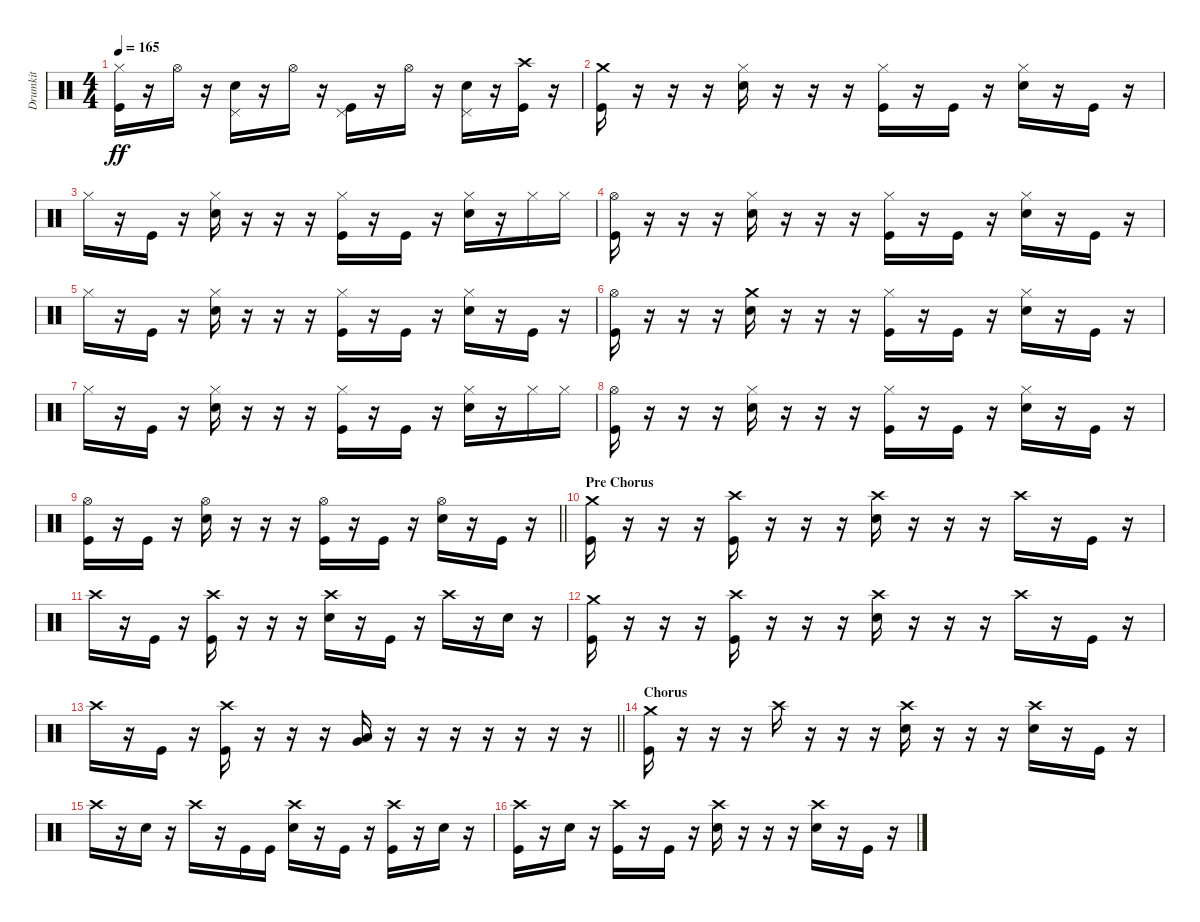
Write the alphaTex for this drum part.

\track ("Drumkit" "Drumkit") {instrument percussion}
\staff {score}
\articulation defaults
\ts (4 4)
\tempo 165
\clef neutral
\ks c
("Hi-Hat (closed)" "Kick (hit)").16{dy ff} r.16 "Hi-Hat (open)".16 r.16 ("Pedal Hi-Hat (hit)" "Snare (hit) 2").16 r.16 "Hi-Hat (open)".16 r.16 ("Pedal Hi-Hat (hit)" "Kick (hit)").16 r.16 "Hi-Hat (open)".16 r.16 ("Pedal Hi-Hat (hit)" "Snare (hit) 2").16 r.16 ("Crash high (hit)" "Kick (hit)").16 r.16 |
("Crash medium (hit)" "Kick (hit)").16 r.16 r.16 r.16 ("Hi-Hat (closed)" "Snare (hit) 2").16 r.16 r.16 r.16 ("Hi-Hat (closed)" "Kick (hit)").16 r.16 "Kick (hit)".16 r.16 ("Hi-Hat (closed)" "Snare (hit) 2").16 r.16 "Kick (hit)".16 r.16 |
"Hi-Hat (closed)".16 r.16 "Kick (hit)".16 r.16 ("Hi-Hat (closed)" "Snare (hit) 2").16 r.16 r.16 r.16 ("Hi-Hat (closed)" "Kick (hit)").16 r.16 "Kick (hit)".16 r.16 ("Hi-Hat (closed)" "Snare (hit) 2").16 r.16 "Hi-Hat (closed)".16 "Hi-Hat (closed)".16 |
("Hi-Hat (open)" "Kick (hit)").16 r.16 r.16 r.16 ("Hi-Hat (closed)" "Snare (hit) 2").16 r.16 r.16 r.16 ("Hi-Hat (closed)" "Kick (hit)").16 r.16 "Kick (hit)".16 r.16 ("Hi-Hat (closed)" "Snare (hit) 2").16 r.16 "Kick (hit)".16 r.16 |
"Hi-Hat (closed)".16 r.16 "Kick (hit)".16 r.16 ("Hi-Hat (closed)" "Snare (hit) 2").16 r.16 r.16 r.16 ("Hi-Hat (closed)" "Kick (hit)").16 r.16 "Kick (hit)".16 r.16 ("Hi-Hat (closed)" "Snare (hit) 2").16 r.16 "Kick (hit)".16 r.16 |
("Hi-Hat (open)" "Kick (hit)").16 r.16 r.16 r.16 ("Crash medium (hit)" "Snare (hit) 2").16 r.16 r.16 r.16 ("Hi-Hat (closed)" "Kick (hit)").16 r.16 "Kick (hit)".16 r.16 ("Hi-Hat (closed)" "Snare (hit) 2").16 r.16 "Kick (hit)".16 r.16 |
"Hi-Hat (closed)".16 r.16 "Kick (hit)".16 r.16 ("Hi-Hat (closed)" "Snare (hit) 2").16 r.16 r.16 r.16 ("Hi-Hat (closed)" "Kick (hit)").16 r.16 "Kick (hit)".16 r.16 ("Hi-Hat (closed)" "Snare (hit) 2").16 r.16 "Hi-Hat (closed)".16 "Hi-Hat (closed)".16 |
("Hi-Hat (open)" "Kick (hit)").16 r.16 r.16 r.16 ("Hi-Hat (closed)" "Snare (hit) 2").16 r.16 r.16 r.16 ("Hi-Hat (closed)" "Kick (hit)").16 r.16 "Kick (hit)".16 r.16 ("Hi-Hat (closed)" "Snare (hit) 2").16 r.16 "Kick (hit)".16 r.16 |
\barLineRight lightlight
("Hi-Hat (open)" "Kick (hit)").16 r.16 "Kick (hit)".16 r.16 ("Hi-Hat (open)" "Snare (hit) 2").16 r.16 r.16 r.16 ("Hi-Hat (open)" "Kick (hit)").16 r.16 "Kick (hit)".16 r.16 ("Hi-Hat (open)" "Snare (hit) 2").16 r.16 "Kick (hit)".16 r.16 |
\section ("" "Pre Chorus")
("Crash medium (hit)" "Kick (hit)").16 r.16 r.16 r.16 ("Crash high (hit)" "Kick (hit)").16 r.16 r.16 r.16 ("Crash high (hit)" "Snare (hit) 2").16 r.16 r.16 r.16 "Crash high (hit)".16 r.16 "Kick (hit)".16 r.16 |
"Crash high (hit)".16 r.16 "Kick (hit)".16 r.16 ("Crash high (hit)" "Kick (hit)").16 r.16 r.16 r.16 ("Crash high (hit)" "Snare (hit) 2").16 r.16 "Kick (hit)".16 r.16 "Crash high (hit)".16 r.16 "Snare (hit) 2".16 r.16 |
("Crash medium (hit)" "Kick (hit)").16 r.16 r.16 r.16 ("Crash high (hit)" "Kick (hit)").16 r.16 r.16 r.16 ("Crash high (hit)" "Snare (hit) 2").16 r.16 r.16 r.16 "Crash high (hit)".16 r.16 "Kick (hit)".16 r.16 |
\barLineRight lightlight "Crash high (hit)".16
r.16 "Kick (hit)".16 r.16 ("Crash high (hit)" "Kick (hit)").16 r.16 r.16 r.16 ("Low Floor Tom (hit)" "Very Low Tom (hit)").16 r.16 r.16 r.16 r.16 r.16 r.16 r.16 |
\section ("" "Chorus")
("Crash medium (hit)" "Kick (hit)").16 r.16 r.16 r.16 "Crash high (hit)".16 r.16 r.16 r.16 ("Crash high (hit)" "Snare (hit) 2").16 r.16 r.16 r.16 ("Crash high (hit)" "Snare (hit) 2").16 r.16 "Kick (hit)".16 r.16 |
"Crash high (hit)".16 r.16 "Snare (hit) 2".16 r.16 "Crash high (hit)".16 r.16 "Kick (hit)".16 "Kick (hit)".16 ("Crash high (hit)" "Snare (hit) 2").16 r.16 "Kick (hit)".16 r.16 ("Crash high (hit)" "Kick (hit)").16 r.16 "Snare (hit) 2".16 r.16 |
("Crash high (hit)" "Kick (hit)").16 r.16 "Snare (hit) 2".16 r.16 ("Crash high (hit)" "Kick (hit)").16 r.16 "Kick (hit)".16 r.16 ("Crash high (hit)" "Snare (hit) 2").16 r.16 r.16 r.16 ("Crash high (hit)" "Snare (hit) 2").16 r.16 "Kick (hit)".16 r.16
